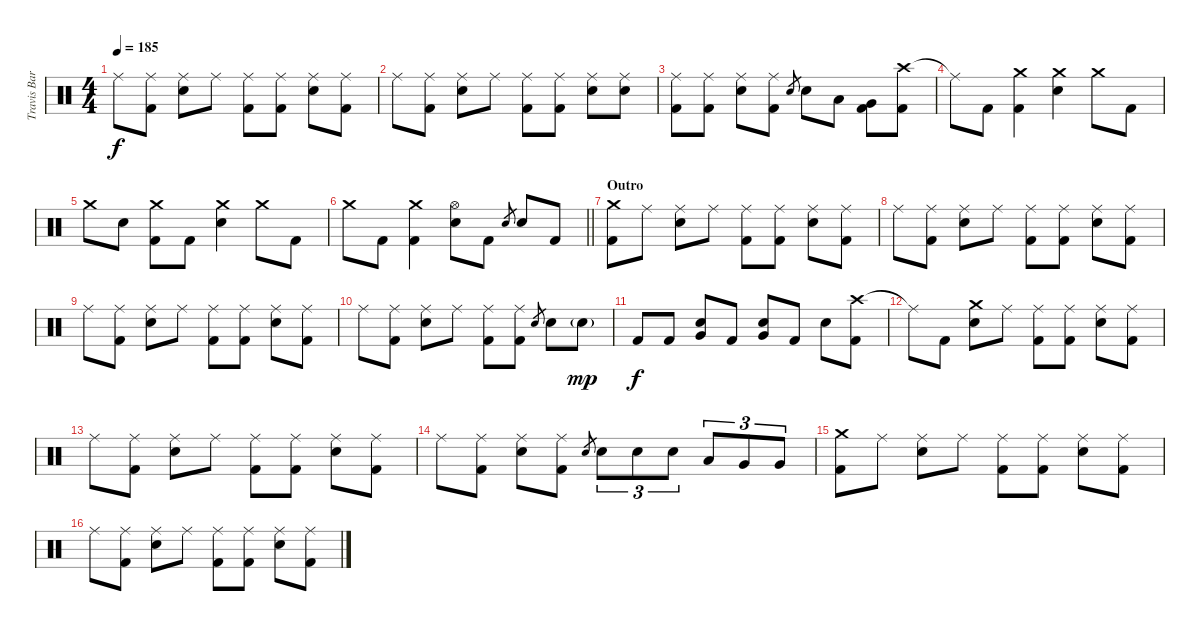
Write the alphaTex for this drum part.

\track ("Travis Barker - Drums" "Travis Bar") {instrument percussion}
\staff {score}
\articulation defaults
\ts (4 4)
\tempo 185
\clef neutral
\ks c "Ride (middle)".8{dy f}
("Ride (middle)" "Kick (hit) 2").8 ("Ride (middle)" "Electric Snare (hit)").8 "Ride (middle)".8 ("Ride (middle)" "Kick (hit) 2").8 ("Ride (middle)" "Kick (hit) 2").8 ("Ride (middle)" "Electric Snare (hit)").8 ("Ride (middle)" "Kick (hit) 2").8 |
"Ride (middle)".8 ("Ride (middle)" "Kick (hit) 2").8 ("Ride (middle)" "Electric Snare (hit)").8 "Ride (middle)".8 ("Ride (middle)" "Kick (hit) 2").8 ("Ride (middle)" "Kick (hit) 2").8 ("Ride (middle)" "Electric Snare (hit)").8 ("Ride (middle)" "Electric Snare (hit)").8 |
("Ride (middle)" "Kick (hit) 2").8 ("Ride (middle)" "Kick (hit) 2").8 ("Ride (middle)" "Electric Snare (hit)").8 ("Ride (middle)" "Kick (hit) 2").8 "Electric Snare (hit)".8{gr} "Electric Snare (hit)".8 "Low Tom (hit)".8 ("Very Low Tom (hit)" "Kick (hit) 2").8 ("Crash high (hit)" "Kick (hit) 2").8 |
"Ride (middle)"{t}.8 "Kick (hit) 2".8 ("Crash medium (hit)" "Kick (hit) 2").4 ("Crash medium (hit)" "Electric Snare (hit)").4 "Crash medium (hit)".8 "Kick (hit) 2".8 |
"Crash medium (hit)".8 "Electric Snare (hit)".8 ("Crash medium (hit)" "Kick (hit) 2").8 "Kick (hit) 2".8 ("Crash medium (hit)" "Electric Snare (hit)").4 "Crash medium (hit)".8 "Kick (hit) 2".8 |
\barLineRight lightlight "Crash medium (hit)".8 "Kick (hit) 2".8
("Crash medium (hit)" "Kick (hit) 2").4 ("Hi-Hat (open)" "Electric Snare (hit)").8 "Kick (hit) 2".8 "Electric Snare (hit)".8{gr} "Electric Snare (hit)".8 "Kick (hit) 2".8 |
\section ("" "Outro")
("Crash medium (hit)" "Kick (hit) 2").8 "Ride (middle)".8 ("Ride (middle)" "Electric Snare (hit)").8 "Ride (middle)".8 ("Ride (middle)" "Kick (hit) 2").8 ("Ride (middle)" "Kick (hit) 2").8 ("Ride (middle)" "Electric Snare (hit)").8 ("Ride (middle)" "Kick (hit) 2").8 |
"Ride (middle)".8 ("Ride (middle)" "Kick (hit) 2").8 ("Ride (middle)" "Electric Snare (hit)").8 "Ride (middle)".8 ("Ride (middle)" "Kick (hit) 2").8 ("Ride (middle)" "Kick (hit) 2").8 ("Ride (middle)" "Electric Snare (hit)").8 ("Ride (middle)" "Kick (hit) 2").8 |
"Ride (middle)".8 ("Ride (middle)" "Kick (hit) 2").8 ("Ride (middle)" "Electric Snare (hit)").8 "Ride (middle)".8 ("Ride (middle)" "Kick (hit) 2").8 ("Ride (middle)" "Kick (hit) 2").8 ("Ride (middle)" "Electric Snare (hit)").8 ("Ride (middle)" "Kick (hit) 2").8 |
"Ride (middle)".8 ("Ride (middle)" "Kick (hit) 2").8 ("Ride (middle)" "Electric Snare (hit)").8 "Ride (middle)".8 ("Ride (middle)" "Kick (hit) 2").8 ("Ride (middle)" "Kick (hit) 2").8 "Electric Snare (hit)".8{gr} "Electric Snare (hit)".8 "Electric Snare (hit)"{g}.8{dy mp} |
"Kick (hit) 2".8{dy f} "Kick (hit) 2".8 ("Very Low Tom (hit)" "Electric Snare (hit)").8 "Kick (hit) 2".8 ("Very Low Tom (hit)" "Electric Snare (hit)").8 "Kick (hit) 2".8 "Electric Snare (hit)".8 ("Crash high (hit)" "Kick (hit) 2").8 |
"Ride (middle)"{t}.8 "Kick (hit) 2".8 ("Crash medium (hit)" "Electric Snare (hit)").8 "Ride (middle)".8 ("Ride (middle)" "Kick (hit) 2").8 ("Ride (middle)" "Kick (hit) 2").8 ("Ride (middle)" "Electric Snare (hit)").8 ("Ride (middle)" "Kick (hit) 2").8 |
"Ride (middle)".8 ("Ride (middle)" "Kick (hit) 2").8 ("Ride (middle)" "Electric Snare (hit)").8 "Ride (middle)".8 ("Ride (middle)" "Kick (hit) 2").8 ("Ride (middle)" "Kick (hit) 2").8 ("Ride (middle)" "Electric Snare (hit)").8 ("Ride (middle)" "Kick (hit) 2").8 |
"Ride (middle)".8 ("Ride (middle)" "Kick (hit) 2").8 ("Ride (middle)" "Electric Snare (hit)").8 ("Ride (middle)" "Kick (hit) 2").8 "Electric Snare (hit)".8{gr} "Electric Snare (hit)".8{tu (3 2)} "Electric Snare (hit)".8{tu (3 2)} "Electric Snare (hit)".8{tu (3 2)} "Low Tom (hit)".8{tu (3 2)} "Very Low Tom (hit)".8{tu (3 2)} "Very Low Tom (hit)".8{tu (3 2)} |
("Crash medium (hit)" "Kick (hit) 2").8 "Ride (middle)".8 ("Ride (middle)" "Electric Snare (hit)").8 "Ride (middle)".8 ("Ride (middle)" "Kick (hit) 2").8 ("Ride (middle)" "Kick (hit) 2").8 ("Ride (middle)" "Electric Snare (hit)").8 ("Ride (middle)" "Kick (hit) 2").8 |
"Ride (middle)".8 ("Ride (middle)" "Kick (hit) 2").8 ("Ride (middle)" "Electric Snare (hit)").8 "Ride (middle)".8 ("Ride (middle)" "Kick (hit) 2").8 ("Ride (middle)" "Kick (hit) 2").8 ("Ride (middle)" "Electric Snare (hit)").8 ("Ride (middle)" "Kick (hit) 2").8
